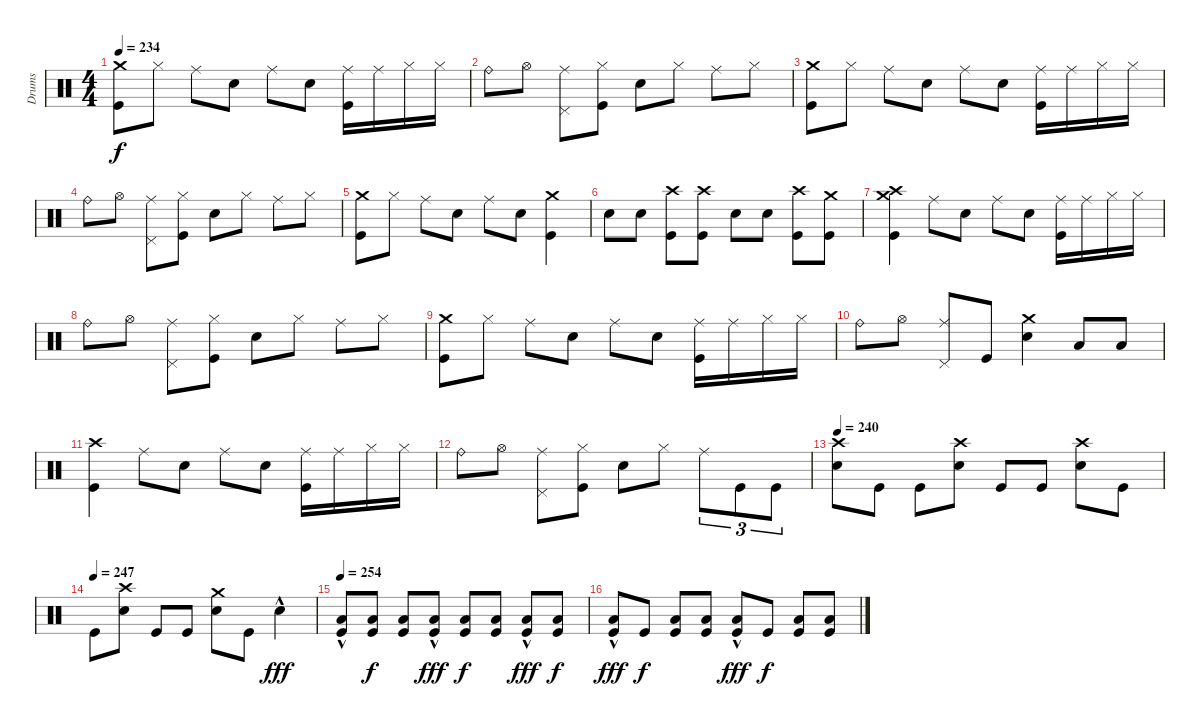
\track ("Drums" "Drums") {instrument percussion}
\staff {score}
\articulation defaults
\ts (4 4)
\tempo 234
\clef neutral
\ks c
("Crash medium (hit)" "Kick (hit)").8{dy f} "Hi-Hat (closed)".8 "Ride (middle)".8 "Snare (hit) 2".8 "Ride (middle)".8 "Snare (hit) 2".8 ("Kick (hit)" "Ride (middle)").16 "Ride (middle)".16 "Hi-Hat (closed)".16 "Hi-Hat (closed)".16 |
"Ride (bell)".8 "Hi-Hat (open)".8 ("Pedal Hi-Hat (hit)" "Ride (middle)").8 ("Hi-Hat (closed)" "Kick (hit)").8 "Snare (hit) 2".8 "Hi-Hat (closed)".8 "Ride (middle)".8 "Hi-Hat (closed)".8 |
("Crash medium (hit)" "Kick (hit)").8 "Hi-Hat (closed)".8 "Ride (middle)".8 "Snare (hit) 2".8 "Ride (middle)".8 "Snare (hit) 2".8 ("Kick (hit)" "Ride (middle)").16 "Ride (middle)".16 "Hi-Hat (closed)".16 "Hi-Hat (closed)".16 |
"Ride (bell)".8 "Hi-Hat (open)".8 ("Pedal Hi-Hat (hit)" "Ride (middle)").8 ("Hi-Hat (closed)" "Kick (hit)").8 "Snare (hit) 2".8 "Hi-Hat (closed)".8 "Ride (middle)".8 "Hi-Hat (closed)".8 |
("Crash medium (hit)" "Kick (hit)").8 "Hi-Hat (closed)".8 "Ride (middle)".8 "Snare (hit) 2".8 "Ride (middle)".8 "Snare (hit) 2".8 ("Crash medium (hit)" "Kick (hit)").4 |
"Snare (hit) 2".8 "Snare (hit) 2".8 ("Kick (hit)" "Crash high (hit)").8 ("Kick (hit)" "Crash high (hit)").8 "Snare (hit) 2".8 "Snare (hit) 2".8 ("Kick (hit)" "Crash high (hit)").8 ("Crash medium (hit)" "Kick (hit)").8 |
("Crash medium (hit)" "Kick (hit)" "Crash high (hit)").4 "Ride (middle)".8 "Snare (hit) 2".8 "Ride (middle)".8 "Snare (hit) 2".8 ("Kick (hit)" "Ride (middle)").16 "Ride (middle)".16 "Hi-Hat (closed)".16 "Hi-Hat (closed)".16 |
"Ride (bell)".8 "Hi-Hat (open)".8 ("Pedal Hi-Hat (hit)" "Ride (middle)").8 ("Hi-Hat (closed)" "Kick (hit)").8 "Snare (hit) 2".8 "Hi-Hat (closed)".8 "Ride (middle)".8 "Hi-Hat (closed)".8 |
("Crash medium (hit)" "Kick (hit)").8 "Hi-Hat (closed)".8 "Ride (middle)".8 "Snare (hit) 2".8 "Ride (middle)".8 "Snare (hit) 2".8 ("Kick (hit)" "Ride (middle)").16 "Ride (middle)".16 "Hi-Hat (closed)".16 "Hi-Hat (closed)".16 |
"Ride (bell)".8 "Hi-Hat (open)".8 ("Pedal Hi-Hat (hit)" "Ride (middle)").8 "Kick (hit)".8 ("Snare (hit) 2" "Crash medium (hit)").4 "Low Floor Tom (hit)".8 "Low Floor Tom (hit)".8 |
("Kick (hit)" "Crash high (hit)").4 "Ride (middle)".8 "Snare (hit) 2".8 "Ride (middle)".8 "Snare (hit) 2".8 ("Kick (hit)" "Ride (middle)").16 "Ride (middle)".16 "Hi-Hat (closed)".16 "Hi-Hat (closed)".16 |
"Ride (bell)".8 "Hi-Hat (open)".8 ("Pedal Hi-Hat (hit)" "Ride (middle)").8 ("Hi-Hat (closed)" "Kick (hit)").8 "Snare (hit) 2".8 "Hi-Hat (closed)".8 "Ride (middle)".8{tu (3 2)} "Kick (hit)".8{tu (3 2)} "Kick (hit)".8{tu (3 2)} |
\tempo 240
("Snare (hit) 2" "Crash high (hit)").8 "Kick (hit)".8 "Kick (hit)".8 ("Snare (hit) 2" "Crash high (hit)").8 "Kick (hit)".8 "Kick (hit)".8 ("Snare (hit) 2" "Crash high (hit)").8 "Kick (hit)".8 |
\tempo (247)
"Kick (hit)".8 ("Snare (hit) 2" "Crash high (hit)").8 "Kick (hit)".8 "Kick (hit)".8 ("Snare (hit) 2" "Crash medium (hit)").8 "Kick (hit)".8 "Snare (hit) 2"{hac}.4{dy fff} |
\tempo 254
("Kick (hit)" "Low Floor Tom (hit)"{hac}).8 ("Kick (hit)" "Low Floor Tom (hit)").8{dy f} ("Kick (hit)" "Low Floor Tom (hit)").8 ("Kick (hit)" "Low Floor Tom (hit)"{hac}).8{dy fff} ("Kick (hit)" "Low Floor Tom (hit)").8{dy f} ("Kick (hit)" "Low Floor Tom (hit)").8 ("Kick (hit)" "Low Floor Tom (hit)"{hac}).8{dy fff} ("Kick (hit)" "Low Floor Tom (hit)").8{dy f} |
("Kick (hit)" "Low Floor Tom (hit)"{hac}).8{dy fff} "Kick (hit)".8{dy f} ("Kick (hit)" "Low Floor Tom (hit)").8 ("Kick (hit)" "Low Floor Tom (hit)").8 ("Kick (hit)" "Low Floor Tom (hit)"{hac}).8{dy fff} "Kick (hit)".8{dy f} ("Kick (hit)" "Low Floor Tom (hit)").8 ("Kick (hit)" "Low Floor Tom (hit)").8
